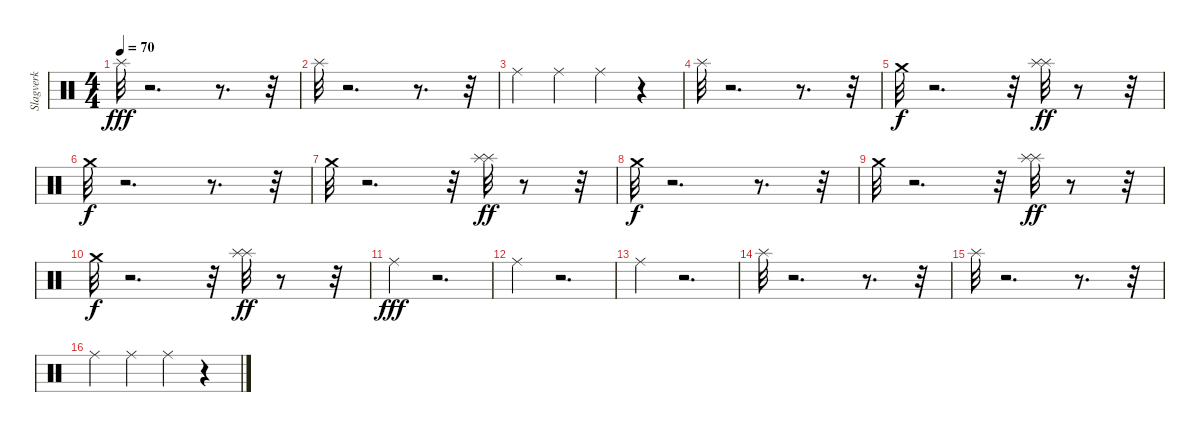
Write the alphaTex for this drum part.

\track ("Slagverk" "Slagverk") {instrument percussion}
\staff {score}
\articulation defaults
\ts (4 4)
\tempo 70
\clef neutral
\ks c "Splash (hit)".32{dy fff}
r.2{d} r.8{d} r.32 |
"Splash (hit)".32 r.2{d} r.8{d} r.32 |
"Ride (middle)".4 "Ride (middle)".4 "Ride (middle)".4 r.4 |
"Splash (hit)".32 r.2{d} r.8{d} r.32 |
"Crash medium (hit)".32{dy f} r.2{d} r.32 ("Splash (hit)" "Splash (hit)").32{dy ff} r.8 r.32 |
"Crash medium (hit)".32{dy f} r.2{d} r.8{d} r.32 |
"Crash medium (hit)".32 r.2{d} r.32 ("Splash (hit)" "Splash (hit)").32{dy ff} r.8 r.32 |
"Crash medium (hit)".32{dy f} r.2{d} r.8{d} r.32 |
"Crash medium (hit)".32 r.2{d} r.32 ("Splash (hit)" "Splash (hit)").32{dy ff} r.8 r.32 |
"Crash medium (hit)".32{dy f} r.2{d} r.32 ("Splash (hit)" "Splash (hit)").32{dy ff} r.8 r.32 |
"Ride (middle)".4{dy fff} r.2{d} |
"Ride (middle)".4 r.2{d} |
"Ride (middle)".4 r.2{d} |
"Splash (hit)".32 r.2{d} r.8{d} r.32 |
"Splash (hit)".32 r.2{d} r.8{d} r.32 |
"Ride (middle)".4 "Ride (middle)".4 "Ride (middle)".4 r.4
